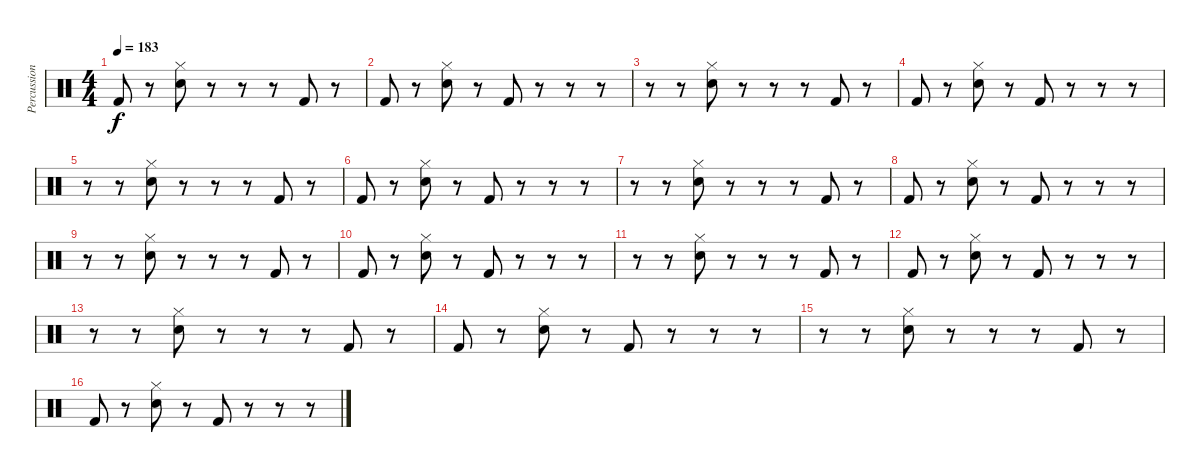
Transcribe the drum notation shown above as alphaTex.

\track ("Percussion" "Percussion") {instrument percussion}
\staff {score}
\articulation defaults
\ts (4 4)
\tempo 183
\clef neutral
\ks c "Kick (hit) 2".8{dy f}
r.8 ("Hi-Hat (closed)" "Snare (hit) 2").8 r.8 r.8 r.8 "Kick (hit) 2".8 r.8 |
"Kick (hit) 2".8 r.8 ("Hi-Hat (closed)" "Snare (hit) 2").8 r.8 "Kick (hit) 2".8 r.8 r.8 r.8 |
r.8 r.8 ("Hi-Hat (closed)" "Snare (hit) 2").8 r.8 r.8 r.8 "Kick (hit) 2".8 r.8 |
"Kick (hit) 2".8 r.8 ("Hi-Hat (closed)" "Snare (hit) 2").8 r.8 "Kick (hit) 2".8 r.8 r.8 r.8 |
r.8 r.8 ("Hi-Hat (closed)" "Snare (hit) 2").8 r.8 r.8 r.8 "Kick (hit) 2".8 r.8 |
"Kick (hit) 2".8 r.8 ("Hi-Hat (closed)" "Snare (hit) 2").8 r.8 "Kick (hit) 2".8 r.8 r.8 r.8 |
r.8 r.8 ("Hi-Hat (closed)" "Snare (hit) 2").8 r.8 r.8 r.8 "Kick (hit) 2".8 r.8 |
"Kick (hit) 2".8 r.8 ("Hi-Hat (closed)" "Snare (hit) 2").8 r.8 "Kick (hit) 2".8 r.8 r.8 r.8 |
r.8 r.8 ("Hi-Hat (closed)" "Snare (hit) 2").8 r.8 r.8 r.8 "Kick (hit) 2".8 r.8 |
"Kick (hit) 2".8 r.8 ("Hi-Hat (closed)" "Snare (hit) 2").8 r.8 "Kick (hit) 2".8 r.8 r.8 r.8 |
r.8 r.8 ("Hi-Hat (closed)" "Snare (hit) 2").8 r.8 r.8 r.8 "Kick (hit) 2".8 r.8 |
"Kick (hit) 2".8 r.8 ("Hi-Hat (closed)" "Snare (hit) 2").8 r.8 "Kick (hit) 2".8 r.8 r.8 r.8 |
r.8 r.8 ("Hi-Hat (closed)" "Snare (hit) 2").8 r.8 r.8 r.8 "Kick (hit) 2".8 r.8 |
"Kick (hit) 2".8 r.8 ("Hi-Hat (closed)" "Snare (hit) 2").8 r.8 "Kick (hit) 2".8 r.8 r.8 r.8 |
r.8 r.8 ("Hi-Hat (closed)" "Snare (hit) 2").8 r.8 r.8 r.8 "Kick (hit) 2".8 r.8 |
"Kick (hit) 2".8 r.8 ("Hi-Hat (closed)" "Snare (hit) 2").8 r.8 "Kick (hit) 2".8 r.8 r.8 r.8
